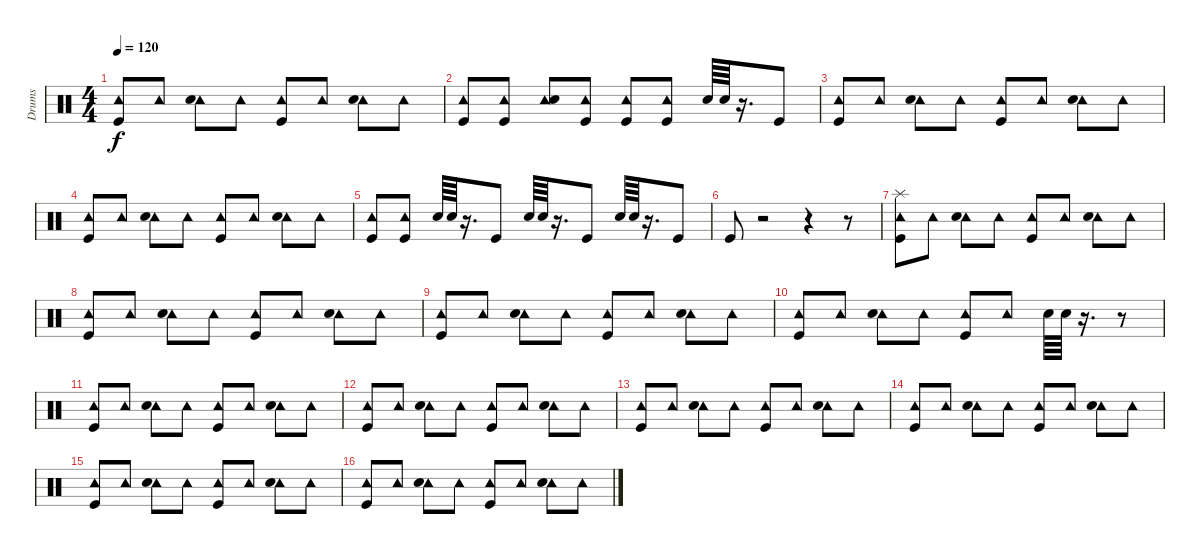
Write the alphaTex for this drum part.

\track ("Drums" "Drums") {instrument percussion}
\staff {score}
\articulation defaults
\ts (4 4)
\tempo 120
\clef neutral
\ks c
("Tambourine (hit)" "Kick (hit)").8{dy f} "Tambourine (hit)".8 ("Tambourine (hit)" "Snare (hit) 2").8 "Tambourine (hit)".8 ("Tambourine (hit)" "Kick (hit)").8 "Tambourine (hit)".8 ("Tambourine (hit)" "Snare (hit) 2").8 "Tambourine (hit)".8 |
("Tambourine (hit)" "Kick (hit)").8 ("Tambourine (hit)" "Kick (hit)").8 ("Tambourine (hit)" "Snare (hit) 2").8 ("Tambourine (hit)" "Kick (hit)").8 ("Tambourine (hit)" "Kick (hit)").8 ("Tambourine (hit)" "Kick (hit)").8 "Snare (hit) 2".64 "Snare (hit) 2".64 r.16{d} "Kick (hit)".8 |
("Tambourine (hit)" "Kick (hit)").8 "Tambourine (hit)".8 ("Tambourine (hit)" "Snare (hit) 2").8 "Tambourine (hit)".8 ("Tambourine (hit)" "Kick (hit)").8 "Tambourine (hit)".8 ("Tambourine (hit)" "Snare (hit) 2").8 "Tambourine (hit)".8 |
("Tambourine (hit)" "Kick (hit)").8 "Tambourine (hit)".8 ("Tambourine (hit)" "Snare (hit) 2").8 "Tambourine (hit)".8 ("Tambourine (hit)" "Kick (hit)").8 "Tambourine (hit)".8 ("Tambourine (hit)" "Snare (hit) 2").8 "Tambourine (hit)".8 |
("Tambourine (hit)" "Kick (hit)").8 ("Tambourine (hit)" "Kick (hit)").8 "Snare (hit) 2".64 "Snare (hit) 2".64 r.16{d} "Kick (hit)".8 "Snare (hit) 2".64 "Snare (hit) 2".64 r.16{d} "Kick (hit)".8 "Snare (hit) 2".64 "Snare (hit) 2".64 r.16{d} "Kick (hit)".8 |
"Kick (hit)".8 r.2 r.4 r.8 |
("Tambourine (hit)" "Kick (hit)" "Splash (hit)").8 "Tambourine (hit)".8 ("Tambourine (hit)" "Snare (hit) 2").8 "Tambourine (hit)".8 ("Tambourine (hit)" "Kick (hit)").8 "Tambourine (hit)".8 ("Tambourine (hit)" "Snare (hit) 2").8 "Tambourine (hit)".8 |
("Tambourine (hit)" "Kick (hit)").8 "Tambourine (hit)".8 ("Tambourine (hit)" "Snare (hit) 2").8 "Tambourine (hit)".8 ("Tambourine (hit)" "Kick (hit)").8 "Tambourine (hit)".8 ("Tambourine (hit)" "Snare (hit) 2").8 "Tambourine (hit)".8 |
("Tambourine (hit)" "Kick (hit)").8 "Tambourine (hit)".8 ("Tambourine (hit)" "Snare (hit) 2").8 "Tambourine (hit)".8 ("Tambourine (hit)" "Kick (hit)").8 "Tambourine (hit)".8 ("Tambourine (hit)" "Snare (hit) 2").8 "Tambourine (hit)".8 |
("Tambourine (hit)" "Kick (hit)").8 "Tambourine (hit)".8 ("Tambourine (hit)" "Snare (hit) 2").8 "Tambourine (hit)".8 ("Tambourine (hit)" "Kick (hit)").8 "Tambourine (hit)".8 "Snare (hit) 2".64 "Snare (hit) 2".64 r.16{d} r.8 |
("Tambourine (hit)" "Kick (hit)").8 "Tambourine (hit)".8 ("Tambourine (hit)" "Snare (hit) 2").8 "Tambourine (hit)".8 ("Tambourine (hit)" "Kick (hit)").8 "Tambourine (hit)".8 ("Tambourine (hit)" "Snare (hit) 2").8 "Tambourine (hit)".8 |
("Tambourine (hit)" "Kick (hit)").8 "Tambourine (hit)".8 ("Tambourine (hit)" "Snare (hit) 2").8 "Tambourine (hit)".8 ("Tambourine (hit)" "Kick (hit)").8 "Tambourine (hit)".8 ("Tambourine (hit)" "Snare (hit) 2").8 "Tambourine (hit)".8 |
("Tambourine (hit)" "Kick (hit)").8 "Tambourine (hit)".8 ("Tambourine (hit)" "Snare (hit) 2").8 "Tambourine (hit)".8 ("Tambourine (hit)" "Kick (hit)").8 "Tambourine (hit)".8 ("Tambourine (hit)" "Snare (hit) 2").8 "Tambourine (hit)".8 |
("Tambourine (hit)" "Kick (hit)").8 "Tambourine (hit)".8 ("Tambourine (hit)" "Snare (hit) 2").8 "Tambourine (hit)".8 ("Tambourine (hit)" "Kick (hit)").8 "Tambourine (hit)".8 ("Tambourine (hit)" "Snare (hit) 2").8 "Tambourine (hit)".8 |
("Tambourine (hit)" "Kick (hit)").8 "Tambourine (hit)".8 ("Tambourine (hit)" "Snare (hit) 2").8 "Tambourine (hit)".8 ("Tambourine (hit)" "Kick (hit)").8 "Tambourine (hit)".8 ("Tambourine (hit)" "Snare (hit) 2").8 "Tambourine (hit)".8 |
("Tambourine (hit)" "Kick (hit)").8 "Tambourine (hit)".8 ("Tambourine (hit)" "Snare (hit) 2").8 "Tambourine (hit)".8 ("Tambourine (hit)" "Kick (hit)").8 "Tambourine (hit)".8 ("Tambourine (hit)" "Snare (hit) 2").8 "Tambourine (hit)".8
